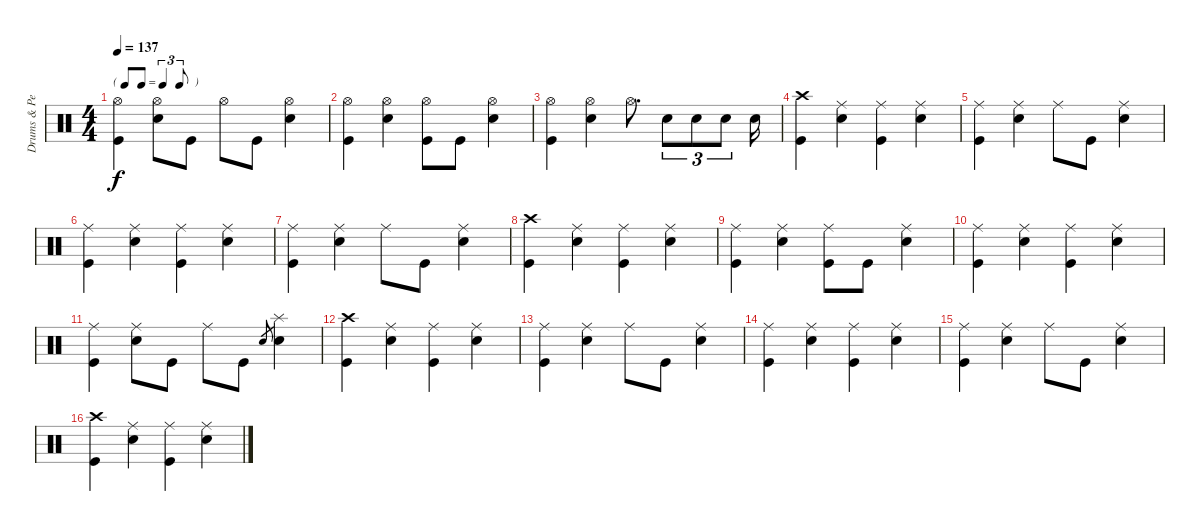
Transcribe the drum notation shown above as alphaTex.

\track ("Drums & Percussion (Matt)" "Drums & Pe") {instrument percussion}
\staff {score}
\articulation defaults
\ts (4 4)
\tf triplet8th
\tempo 137
\clef neutral
\ks c
("Hi-Hat (open)" "Kick (hit)").4{dy f} ("Hi-Hat (open)" "Electric Snare (hit)").8 "Kick (hit)".8 "Hi-Hat (open)".8 "Kick (hit)".8 ("Hi-Hat (open)" "Electric Snare (hit)").4 |
("Hi-Hat (open)" "Kick (hit)").4 ("Hi-Hat (open)" "Electric Snare (hit)").4 ("Hi-Hat (open)" "Kick (hit)").8 "Kick (hit)".8 ("Hi-Hat (open)" "Electric Snare (hit)").4 |
("Hi-Hat (open)" "Kick (hit)").4 ("Electric Snare (hit)" "Hi-Hat (open)").4 "Hi-Hat (open)".8{d} "Electric Snare (hit)".8{tu (3 2)} "Electric Snare (hit)".8{tu (3 2)} "Electric Snare (hit)".8{tu (3 2)} "Electric Snare (hit)".16 |
("Crash high (hit)" "Kick (hit)").4 ("Electric Snare (hit)" "Ride (middle)").4 ("Ride (middle)" "Kick (hit)").4 ("Electric Snare (hit)" "Ride (middle)").4 |
("Ride (middle)" "Kick (hit)").4 ("Ride (middle)" "Electric Snare (hit)").4 "Ride (middle)".8 "Kick (hit)".8 ("Ride (middle)" "Electric Snare (hit)").4 |
("Ride (middle)" "Kick (hit)").4 ("Electric Snare (hit)" "Ride (middle)").4 ("Ride (middle)" "Kick (hit)").4 ("Electric Snare (hit)" "Ride (middle)").4 |
("Ride (middle)" "Kick (hit)").4 ("Ride (middle)" "Electric Snare (hit)").4 "Ride (middle)".8 "Kick (hit)".8 ("Ride (middle)" "Electric Snare (hit)").4 |
("Crash high (hit)" "Kick (hit)").4 ("Electric Snare (hit)" "Ride (middle)").4 ("Ride (middle)" "Kick (hit)").4 ("Electric Snare (hit)" "Ride (middle)").4 |
("Ride (middle)" "Kick (hit)").4 ("Ride (middle)" "Electric Snare (hit)").4 ("Ride (middle)" "Kick (hit)").8 "Kick (hit)".8 ("Ride (middle)" "Electric Snare (hit)").4 |
("Ride (middle)" "Kick (hit)").4 ("Electric Snare (hit)" "Ride (middle)").4 ("Ride (middle)" "Kick (hit)").4 ("Electric Snare (hit)" "Ride (middle)").4 |
("Ride (middle)" "Kick (hit)").4 ("Ride (middle)" "Electric Snare (hit)").8 "Kick (hit)".8 "Ride (middle)".8 "Kick (hit)".8 "Electric Snare (hit)".8{gr} ("Splash (hit)" "Electric Snare (hit)").4 |
("Crash high (hit)" "Kick (hit)").4 ("Electric Snare (hit)" "Ride (middle)").4 ("Ride (middle)" "Kick (hit)").4 ("Electric Snare (hit)" "Ride (middle)").4 |
("Ride (middle)" "Kick (hit)").4 ("Ride (middle)" "Electric Snare (hit)").4 "Ride (middle)".8 "Kick (hit)".8 ("Ride (middle)" "Electric Snare (hit)").4 |
("Ride (middle)" "Kick (hit)").4 ("Electric Snare (hit)" "Ride (middle)").4 ("Ride (middle)" "Kick (hit)").4 ("Electric Snare (hit)" "Ride (middle)").4 |
("Ride (middle)" "Kick (hit)").4 ("Ride (middle)" "Electric Snare (hit)").4 "Ride (middle)".8 "Kick (hit)".8 ("Ride (middle)" "Electric Snare (hit)").4 |
("Crash high (hit)" "Kick (hit)").4 ("Electric Snare (hit)" "Ride (middle)").4 ("Ride (middle)" "Kick (hit)").4 ("Electric Snare (hit)" "Ride (middle)").4
